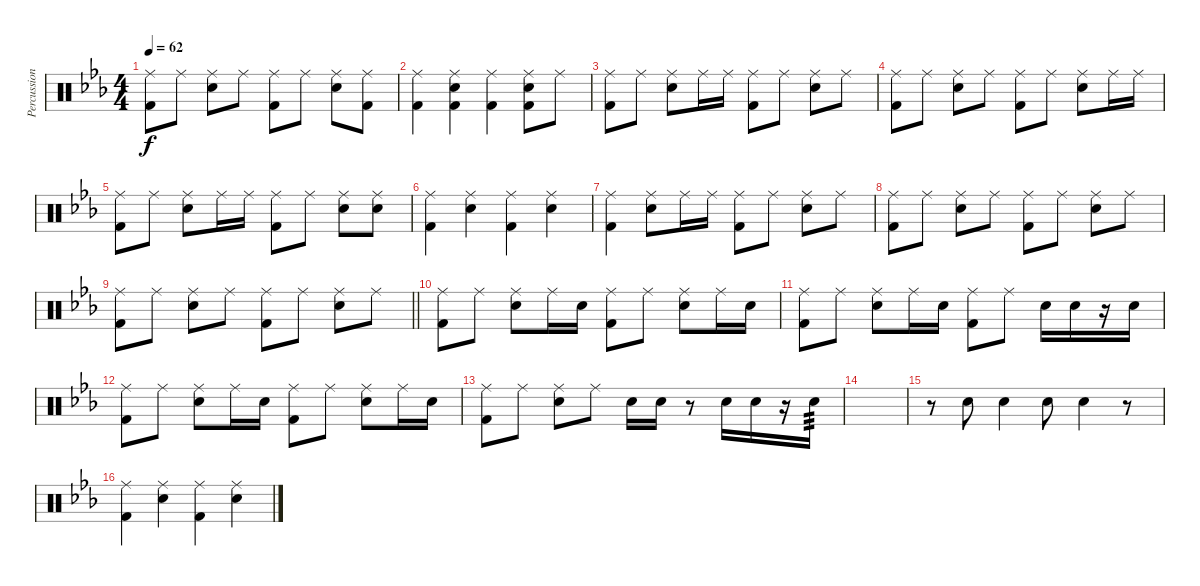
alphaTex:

\track ("Percussion" "Percussion") {instrument percussion}
\staff {score}
\articulation defaults
\ts (4 4)
\tempo 62
\clef neutral
\ks eb
("Ride (middle)" "Kick (hit) 2").8{dy f} "Ride (middle)".8 ("Ride (middle)" "Snare (hit) 2").8 "Ride (middle)".8 ("Ride (middle)" "Kick (hit) 2").8 "Ride (middle)".8 ("Ride (middle)" "Snare (hit) 2").8 ("Ride (middle)" "Kick (hit) 2").8 |
("Ride (middle)" "Kick (hit) 2").4 ("Ride (middle)" "Snare (hit) 2" "Kick (hit) 2").4 ("Ride (middle)" "Kick (hit) 2").4 ("Ride (middle)" "Snare (hit) 2" "Kick (hit) 2").8 "Ride (middle)".8 |
("Ride (middle)" "Kick (hit) 2").8 "Ride (middle)".8 ("Ride (middle)" "Snare (hit) 2").8 "Ride (middle)".16 "Ride (middle)".16 ("Ride (middle)" "Kick (hit) 2").8 "Ride (middle)".8 ("Ride (middle)" "Snare (hit) 2").8 "Ride (middle)".8 |
("Ride (middle)" "Kick (hit) 2").8 "Ride (middle)".8 ("Ride (middle)" "Snare (hit) 2").8 "Ride (middle)".8 ("Ride (middle)" "Kick (hit) 2").8 "Ride (middle)".8 ("Ride (middle)" "Snare (hit) 2").8 "Ride (middle)".16 "Ride (middle)".16 |
("Ride (middle)" "Kick (hit) 2").8 "Ride (middle)".8 ("Ride (middle)" "Snare (hit) 2").8 "Ride (middle)".16 "Ride (middle)".16 ("Ride (middle)" "Kick (hit) 2").8 "Ride (middle)".8 ("Ride (middle)" "Snare (hit) 2").8 ("Ride (middle)" "Snare (hit) 2").8 |
("Ride (middle)" "Kick (hit) 2").4 ("Ride (middle)" "Snare (hit) 2").4 ("Ride (middle)" "Kick (hit) 2").4 ("Ride (middle)" "Snare (hit) 2").4 |
("Ride (middle)" "Kick (hit) 2").4 ("Ride (middle)" "Snare (hit) 2").8 "Ride (middle)".16 "Ride (middle)".16 ("Ride (middle)" "Kick (hit) 2").8 "Ride (middle)".8 ("Ride (middle)" "Snare (hit) 2").8 "Ride (middle)".8 |
("Ride (middle)" "Kick (hit) 2").8 "Ride (middle)".8 ("Ride (middle)" "Snare (hit) 2").8 "Ride (middle)".8 ("Ride (middle)" "Kick (hit) 2").8 "Ride (middle)".8 ("Ride (middle)" "Snare (hit) 2").8 "Ride (middle)".8 |
\barLineRight lightlight
("Ride (middle)" "Kick (hit) 2").8 "Ride (middle)".8 ("Ride (middle)" "Snare (hit) 2").8 "Ride (middle)".8 ("Ride (middle)" "Kick (hit) 2").8 "Ride (middle)".8 ("Ride (middle)" "Snare (hit) 2").8 "Ride (middle)".8 |
("Ride (middle)" "Kick (hit) 2").8 "Ride (middle)".8 ("Ride (middle)" "Snare (hit) 2").8 "Ride (middle)".16 "Snare (hit) 2".16 ("Ride (middle)" "Kick (hit) 2").8 "Ride (middle)".8 ("Ride (middle)" "Snare (hit) 2").8 "Ride (middle)".16 "Snare (hit) 2".16 |
("Ride (middle)" "Kick (hit) 2").8 "Ride (middle)".8 ("Ride (middle)" "Snare (hit) 2").8 "Ride (middle)".16 "Snare (hit) 2".16 ("Ride (middle)" "Kick (hit) 2").8 "Ride (middle)".8 "Snare (hit) 2".16 "Snare (hit) 2".16 r.16 "Snare (hit) 2".16 |
("Ride (middle)" "Kick (hit) 2").8 "Ride (middle)".8 ("Ride (middle)" "Snare (hit) 2").8 "Ride (middle)".16 "Snare (hit) 2".16 ("Ride (middle)" "Kick (hit) 2").8 "Ride (middle)".8 ("Ride (middle)" "Snare (hit) 2").8 "Ride (middle)".16 "Snare (hit) 2".16 |
("Ride (middle)" "Kick (hit) 2").8 "Ride (middle)".8 ("Ride (middle)" "Snare (hit) 2").8 "Ride (middle)".8 "Snare (hit) 2".16 "Snare (hit) 2".16 r.8 "Snare (hit) 2".16 "Snare (hit) 2".16 r.16 "Snare (hit) 2".16{tp 3} |
|
r.8 "Snare (hit) 2".8 "Snare (hit) 2".4 "Snare (hit) 2".8 "Snare (hit) 2".4 r.8 |
("Ride (middle)" "Kick (hit) 2").4 ("Ride (middle)" "Snare (hit) 2").4 ("Ride (middle)" "Kick (hit) 2").4 ("Ride (middle)" "Snare (hit) 2").4
